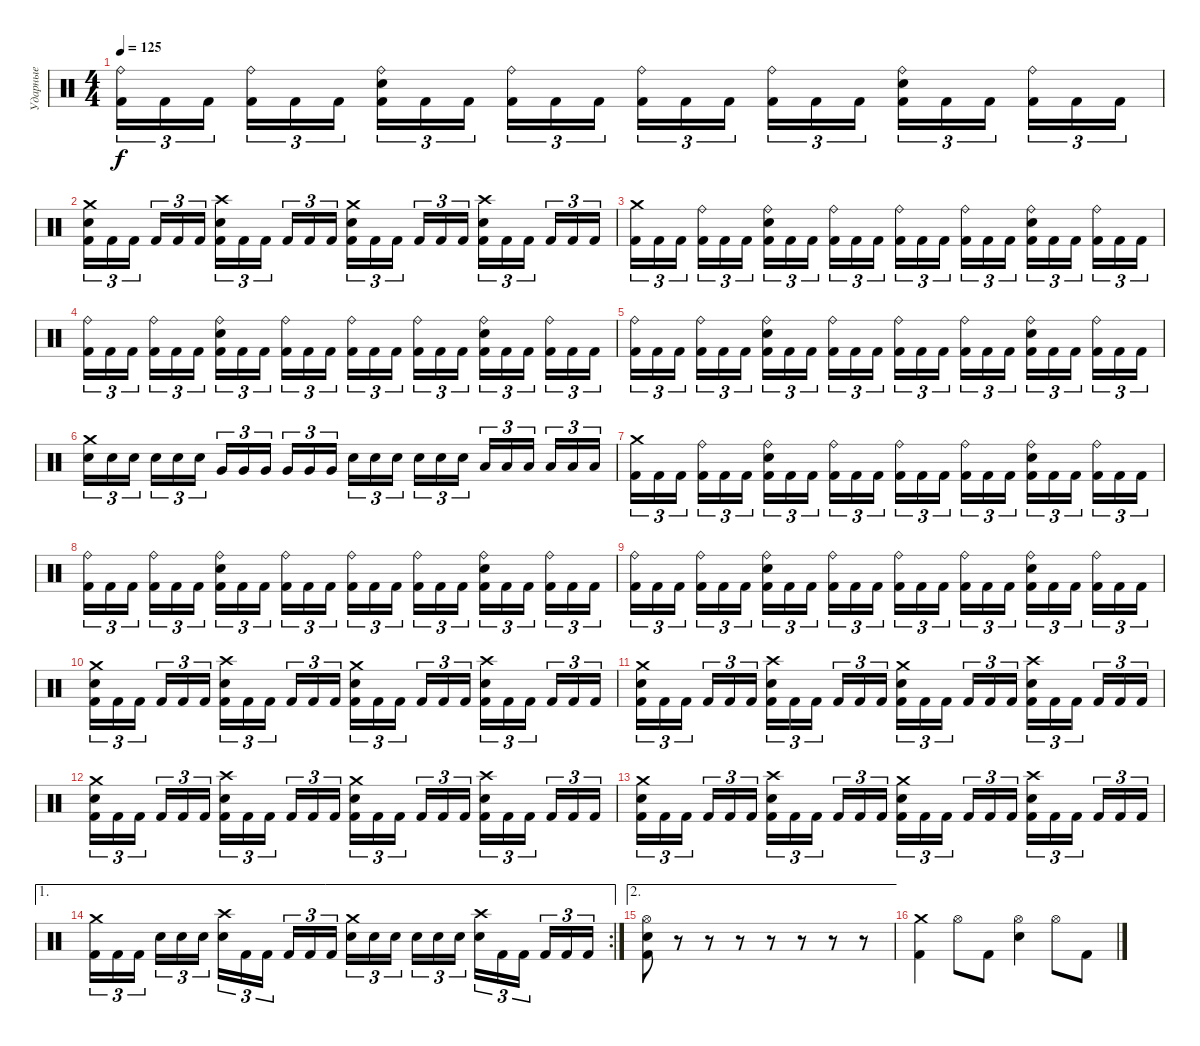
\track ("Ударные" "Ударные") {instrument percussion}
\staff {score}
\articulation defaults
\ts (4 4)
\tempo 125
\clef neutral
\ks c
("Ride (bell)" "Kick (hit) 2").16{tu (3 2) dy f} "Kick (hit) 2".16{tu (3 2)} "Kick (hit) 2".16{tu (3 2) beam splitsecondary} ("Ride (bell)" "Kick (hit) 2").16{tu (3 2)} "Kick (hit) 2".16{tu (3 2)} "Kick (hit) 2".16{tu (3 2)} ("Ride (bell)" "Electric Snare (hit)" "Kick (hit) 2").16{tu (3 2)} "Kick (hit) 2".16{tu (3 2)} "Kick (hit) 2".16{tu (3 2) beam splitsecondary} ("Ride (bell)" "Kick (hit) 2").16{tu (3 2)} "Kick (hit) 2".16{tu (3 2)} "Kick (hit) 2".16{tu (3 2)} ("Ride (bell)" "Kick (hit) 2").16{tu (3 2)} "Kick (hit) 2".16{tu (3 2)} "Kick (hit) 2".16{tu (3 2) beam splitsecondary} ("Ride (bell)" "Kick (hit) 2").16{tu (3 2)} "Kick (hit) 2".16{tu (3 2)} "Kick (hit) 2".16{tu (3 2)} ("Ride (bell)" "Electric Snare (hit)" "Kick (hit) 2").16{tu (3 2)} "Kick (hit) 2".16{tu (3 2)} "Kick (hit) 2".16{tu (3 2) beam splitsecondary} ("Ride (bell)" "Kick (hit) 2").16{tu (3 2)} "Kick (hit) 2".16{tu (3 2)} "Kick (hit) 2".16{tu (3 2)} |
("Crash medium (hit)" "Electric Snare (hit)" "Kick (hit) 2").16{tu (3 2)} "Kick (hit) 2".16{tu (3 2)} "Kick (hit) 2".16{tu (3 2) beam splitsecondary} "Kick (hit) 2".16{tu (3 2)} "Kick (hit) 2".16{tu (3 2)} "Kick (hit) 2".16{tu (3 2)} ("Crash high (hit)" "Electric Snare (hit)" "Kick (hit) 2").16{tu (3 2)} "Kick (hit) 2".16{tu (3 2)} "Kick (hit) 2".16{tu (3 2) beam splitsecondary} "Kick (hit) 2".16{tu (3 2)} "Kick (hit) 2".16{tu (3 2)} "Kick (hit) 2".16{tu (3 2)} ("Crash medium (hit)" "Electric Snare (hit)" "Kick (hit) 2").16{tu (3 2)} "Kick (hit) 2".16{tu (3 2)} "Kick (hit) 2".16{tu (3 2) beam splitsecondary} "Kick (hit) 2".16{tu (3 2)} "Kick (hit) 2".16{tu (3 2)} "Kick (hit) 2".16{tu (3 2)} ("Crash high (hit)" "Electric Snare (hit)" "Kick (hit) 2").16{tu (3 2)} "Kick (hit) 2".16{tu (3 2)} "Kick (hit) 2".16{tu (3 2) beam splitsecondary} "Kick (hit) 2".16{tu (3 2)} "Kick (hit) 2".16{tu (3 2)} "Kick (hit) 2".16{tu (3 2)} |
("Crash medium (hit)" "Kick (hit) 2").16{tu (3 2)} "Kick (hit) 2".16{tu (3 2)} "Kick (hit) 2".16{tu (3 2) beam splitsecondary} ("Ride (bell)" "Kick (hit) 2").16{tu (3 2)} "Kick (hit) 2".16{tu (3 2)} "Kick (hit) 2".16{tu (3 2)} ("Ride (bell)" "Electric Snare (hit)" "Kick (hit) 2").16{tu (3 2)} "Kick (hit) 2".16{tu (3 2)} "Kick (hit) 2".16{tu (3 2) beam splitsecondary} ("Ride (bell)" "Kick (hit) 2").16{tu (3 2)} "Kick (hit) 2".16{tu (3 2)} "Kick (hit) 2".16{tu (3 2)} ("Ride (bell)" "Kick (hit) 2").16{tu (3 2)} "Kick (hit) 2".16{tu (3 2)} "Kick (hit) 2".16{tu (3 2) beam splitsecondary} ("Ride (bell)" "Kick (hit) 2").16{tu (3 2)} "Kick (hit) 2".16{tu (3 2)} "Kick (hit) 2".16{tu (3 2)} ("Ride (bell)" "Electric Snare (hit)" "Kick (hit) 2").16{tu (3 2)} "Kick (hit) 2".16{tu (3 2)} "Kick (hit) 2".16{tu (3 2) beam splitsecondary} ("Ride (bell)" "Kick (hit) 2").16{tu (3 2)} "Kick (hit) 2".16{tu (3 2)} "Kick (hit) 2".16{tu (3 2)} |
("Ride (bell)" "Kick (hit) 2").16{tu (3 2)} "Kick (hit) 2".16{tu (3 2)} "Kick (hit) 2".16{tu (3 2) beam splitsecondary} ("Ride (bell)" "Kick (hit) 2").16{tu (3 2)} "Kick (hit) 2".16{tu (3 2)} "Kick (hit) 2".16{tu (3 2)} ("Ride (bell)" "Electric Snare (hit)" "Kick (hit) 2").16{tu (3 2)} "Kick (hit) 2".16{tu (3 2)} "Kick (hit) 2".16{tu (3 2) beam splitsecondary} ("Ride (bell)" "Kick (hit) 2").16{tu (3 2)} "Kick (hit) 2".16{tu (3 2)} "Kick (hit) 2".16{tu (3 2)} ("Ride (bell)" "Kick (hit) 2").16{tu (3 2)} "Kick (hit) 2".16{tu (3 2)} "Kick (hit) 2".16{tu (3 2) beam splitsecondary} ("Ride (bell)" "Kick (hit) 2").16{tu (3 2)} "Kick (hit) 2".16{tu (3 2)} "Kick (hit) 2".16{tu (3 2)} ("Ride (bell)" "Electric Snare (hit)" "Kick (hit) 2").16{tu (3 2)} "Kick (hit) 2".16{tu (3 2)} "Kick (hit) 2".16{tu (3 2) beam splitsecondary} ("Ride (bell)" "Kick (hit) 2").16{tu (3 2)} "Kick (hit) 2".16{tu (3 2)} "Kick (hit) 2".16{tu (3 2)} |
("Ride (bell)" "Kick (hit) 2").16{tu (3 2)} "Kick (hit) 2".16{tu (3 2)} "Kick (hit) 2".16{tu (3 2) beam splitsecondary} ("Ride (bell)" "Kick (hit) 2").16{tu (3 2)} "Kick (hit) 2".16{tu (3 2)} "Kick (hit) 2".16{tu (3 2)} ("Ride (bell)" "Electric Snare (hit)" "Kick (hit) 2").16{tu (3 2)} "Kick (hit) 2".16{tu (3 2)} "Kick (hit) 2".16{tu (3 2) beam splitsecondary} ("Ride (bell)" "Kick (hit) 2").16{tu (3 2)} "Kick (hit) 2".16{tu (3 2)} "Kick (hit) 2".16{tu (3 2)} ("Ride (bell)" "Kick (hit) 2").16{tu (3 2)} "Kick (hit) 2".16{tu (3 2)} "Kick (hit) 2".16{tu (3 2) beam splitsecondary} ("Ride (bell)" "Kick (hit) 2").16{tu (3 2)} "Kick (hit) 2".16{tu (3 2)} "Kick (hit) 2".16{tu (3 2)} ("Ride (bell)" "Electric Snare (hit)" "Kick (hit) 2").16{tu (3 2)} "Kick (hit) 2".16{tu (3 2)} "Kick (hit) 2".16{tu (3 2) beam splitsecondary} ("Ride (bell)" "Kick (hit) 2").16{tu (3 2)} "Kick (hit) 2".16{tu (3 2)} "Kick (hit) 2".16{tu (3 2)} |
("Crash medium (hit)" "Electric Snare (hit)").16{tu (3 2)} "Electric Snare (hit)".16{tu (3 2)} "Electric Snare (hit)".16{tu (3 2) beam splitsecondary} "Electric Snare (hit)".16{tu (3 2)} "Electric Snare (hit)".16{tu (3 2)} "Electric Snare (hit)".16{tu (3 2)} "Very Low Tom (hit)".16{tu (3 2)} "Very Low Tom (hit)".16{tu (3 2)} "Very Low Tom (hit)".16{tu (3 2) beam splitsecondary} "Very Low Tom (hit)".16{tu (3 2)} "Very Low Tom (hit)".16{tu (3 2)} "Very Low Tom (hit)".16{tu (3 2)} "Electric Snare (hit)".16{tu (3 2)} "Electric Snare (hit)".16{tu (3 2)} "Electric Snare (hit)".16{tu (3 2) beam splitsecondary} "Electric Snare (hit)".16{tu (3 2)} "Electric Snare (hit)".16{tu (3 2)} "Electric Snare (hit)".16{tu (3 2)} "Low Floor Tom (hit)".16{tu (3 2)} "Low Floor Tom (hit)".16{tu (3 2)} "Low Floor Tom (hit)".16{tu (3 2) beam splitsecondary} "Low Floor Tom (hit)".16{tu (3 2)} "Low Floor Tom (hit)".16{tu (3 2)} "Low Floor Tom (hit)".16{tu (3 2)} |
("Crash medium (hit)" "Kick (hit) 2").16{tu (3 2)} "Kick (hit) 2".16{tu (3 2)} "Kick (hit) 2".16{tu (3 2) beam splitsecondary} ("Ride (bell)" "Kick (hit) 2").16{tu (3 2)} "Kick (hit) 2".16{tu (3 2)} "Kick (hit) 2".16{tu (3 2)} ("Ride (bell)" "Electric Snare (hit)" "Kick (hit) 2").16{tu (3 2)} "Kick (hit) 2".16{tu (3 2)} "Kick (hit) 2".16{tu (3 2) beam splitsecondary} ("Ride (bell)" "Kick (hit) 2").16{tu (3 2)} "Kick (hit) 2".16{tu (3 2)} "Kick (hit) 2".16{tu (3 2)} ("Ride (bell)" "Kick (hit) 2").16{tu (3 2)} "Kick (hit) 2".16{tu (3 2)} "Kick (hit) 2".16{tu (3 2) beam splitsecondary} ("Ride (bell)" "Kick (hit) 2").16{tu (3 2)} "Kick (hit) 2".16{tu (3 2)} "Kick (hit) 2".16{tu (3 2)} ("Ride (bell)" "Electric Snare (hit)" "Kick (hit) 2").16{tu (3 2)} "Kick (hit) 2".16{tu (3 2)} "Kick (hit) 2".16{tu (3 2) beam splitsecondary} ("Ride (bell)" "Kick (hit) 2").16{tu (3 2)} "Kick (hit) 2".16{tu (3 2)} "Kick (hit) 2".16{tu (3 2)} |
("Ride (bell)" "Kick (hit) 2").16{tu (3 2)} "Kick (hit) 2".16{tu (3 2)} "Kick (hit) 2".16{tu (3 2) beam splitsecondary} ("Ride (bell)" "Kick (hit) 2").16{tu (3 2)} "Kick (hit) 2".16{tu (3 2)} "Kick (hit) 2".16{tu (3 2)} ("Ride (bell)" "Electric Snare (hit)" "Kick (hit) 2").16{tu (3 2)} "Kick (hit) 2".16{tu (3 2)} "Kick (hit) 2".16{tu (3 2) beam splitsecondary} ("Ride (bell)" "Kick (hit) 2").16{tu (3 2)} "Kick (hit) 2".16{tu (3 2)} "Kick (hit) 2".16{tu (3 2)} ("Ride (bell)" "Kick (hit) 2").16{tu (3 2)} "Kick (hit) 2".16{tu (3 2)} "Kick (hit) 2".16{tu (3 2) beam splitsecondary} ("Ride (bell)" "Kick (hit) 2").16{tu (3 2)} "Kick (hit) 2".16{tu (3 2)} "Kick (hit) 2".16{tu (3 2)} ("Ride (bell)" "Electric Snare (hit)" "Kick (hit) 2").16{tu (3 2)} "Kick (hit) 2".16{tu (3 2)} "Kick (hit) 2".16{tu (3 2) beam splitsecondary} ("Ride (bell)" "Kick (hit) 2").16{tu (3 2)} "Kick (hit) 2".16{tu (3 2)} "Kick (hit) 2".16{tu (3 2)} |
("Ride (bell)" "Kick (hit) 2").16{tu (3 2)} "Kick (hit) 2".16{tu (3 2)} "Kick (hit) 2".16{tu (3 2) beam splitsecondary} ("Ride (bell)" "Kick (hit) 2").16{tu (3 2)} "Kick (hit) 2".16{tu (3 2)} "Kick (hit) 2".16{tu (3 2)} ("Ride (bell)" "Electric Snare (hit)" "Kick (hit) 2").16{tu (3 2)} "Kick (hit) 2".16{tu (3 2)} "Kick (hit) 2".16{tu (3 2) beam splitsecondary} ("Ride (bell)" "Kick (hit) 2").16{tu (3 2)} "Kick (hit) 2".16{tu (3 2)} "Kick (hit) 2".16{tu (3 2)} ("Ride (bell)" "Kick (hit) 2").16{tu (3 2)} "Kick (hit) 2".16{tu (3 2)} "Kick (hit) 2".16{tu (3 2) beam splitsecondary} ("Ride (bell)" "Kick (hit) 2").16{tu (3 2)} "Kick (hit) 2".16{tu (3 2)} "Kick (hit) 2".16{tu (3 2)} ("Ride (bell)" "Electric Snare (hit)" "Kick (hit) 2").16{tu (3 2)} "Kick (hit) 2".16{tu (3 2)} "Kick (hit) 2".16{tu (3 2) beam splitsecondary} ("Ride (bell)" "Kick (hit) 2").16{tu (3 2)} "Kick (hit) 2".16{tu (3 2)} "Kick (hit) 2".16{tu (3 2)} |
("Crash medium (hit)" "Electric Snare (hit)" "Kick (hit) 2").16{tu (3 2)} "Kick (hit) 2".16{tu (3 2)} "Kick (hit) 2".16{tu (3 2) beam splitsecondary} "Kick (hit) 2".16{tu (3 2)} "Kick (hit) 2".16{tu (3 2)} "Kick (hit) 2".16{tu (3 2)} ("Crash high (hit)" "Electric Snare (hit)" "Kick (hit) 2").16{tu (3 2)} "Kick (hit) 2".16{tu (3 2)} "Kick (hit) 2".16{tu (3 2) beam splitsecondary} "Kick (hit) 2".16{tu (3 2)} "Kick (hit) 2".16{tu (3 2)} "Kick (hit) 2".16{tu (3 2)} ("Crash medium (hit)" "Electric Snare (hit)" "Kick (hit) 2").16{tu (3 2)} "Kick (hit) 2".16{tu (3 2)} "Kick (hit) 2".16{tu (3 2) beam splitsecondary} "Kick (hit) 2".16{tu (3 2)} "Kick (hit) 2".16{tu (3 2)} "Kick (hit) 2".16{tu (3 2)} ("Crash high (hit)" "Electric Snare (hit)" "Kick (hit) 2").16{tu (3 2)} "Kick (hit) 2".16{tu (3 2)} "Kick (hit) 2".16{tu (3 2) beam splitsecondary} "Kick (hit) 2".16{tu (3 2)} "Kick (hit) 2".16{tu (3 2)} "Kick (hit) 2".16{tu (3 2)} |
("Crash medium (hit)" "Electric Snare (hit)" "Kick (hit) 2").16{tu (3 2)} "Kick (hit) 2".16{tu (3 2)} "Kick (hit) 2".16{tu (3 2) beam splitsecondary} "Kick (hit) 2".16{tu (3 2)} "Kick (hit) 2".16{tu (3 2)} "Kick (hit) 2".16{tu (3 2)} ("Crash high (hit)" "Electric Snare (hit)" "Kick (hit) 2").16{tu (3 2)} "Kick (hit) 2".16{tu (3 2)} "Kick (hit) 2".16{tu (3 2) beam splitsecondary} "Kick (hit) 2".16{tu (3 2)} "Kick (hit) 2".16{tu (3 2)} "Kick (hit) 2".16{tu (3 2)} ("Crash medium (hit)" "Electric Snare (hit)" "Kick (hit) 2").16{tu (3 2)} "Kick (hit) 2".16{tu (3 2)} "Kick (hit) 2".16{tu (3 2) beam splitsecondary} "Kick (hit) 2".16{tu (3 2)} "Kick (hit) 2".16{tu (3 2)} "Kick (hit) 2".16{tu (3 2)} ("Crash high (hit)" "Electric Snare (hit)" "Kick (hit) 2").16{tu (3 2)} "Kick (hit) 2".16{tu (3 2)} "Kick (hit) 2".16{tu (3 2) beam splitsecondary} "Kick (hit) 2".16{tu (3 2)} "Kick (hit) 2".16{tu (3 2)} "Kick (hit) 2".16{tu (3 2)} |
("Crash medium (hit)" "Electric Snare (hit)" "Kick (hit) 2").16{tu (3 2)} "Kick (hit) 2".16{tu (3 2)} "Kick (hit) 2".16{tu (3 2) beam splitsecondary} "Kick (hit) 2".16{tu (3 2)} "Kick (hit) 2".16{tu (3 2)} "Kick (hit) 2".16{tu (3 2)} ("Crash high (hit)" "Electric Snare (hit)" "Kick (hit) 2").16{tu (3 2)} "Kick (hit) 2".16{tu (3 2)} "Kick (hit) 2".16{tu (3 2) beam splitsecondary} "Kick (hit) 2".16{tu (3 2)} "Kick (hit) 2".16{tu (3 2)} "Kick (hit) 2".16{tu (3 2)} ("Crash medium (hit)" "Electric Snare (hit)" "Kick (hit) 2").16{tu (3 2)} "Kick (hit) 2".16{tu (3 2)} "Kick (hit) 2".16{tu (3 2) beam splitsecondary} "Kick (hit) 2".16{tu (3 2)} "Kick (hit) 2".16{tu (3 2)} "Kick (hit) 2".16{tu (3 2)} ("Crash high (hit)" "Electric Snare (hit)" "Kick (hit) 2").16{tu (3 2)} "Kick (hit) 2".16{tu (3 2)} "Kick (hit) 2".16{tu (3 2) beam splitsecondary} "Kick (hit) 2".16{tu (3 2)} "Kick (hit) 2".16{tu (3 2)} "Kick (hit) 2".16{tu (3 2)} |
("Crash medium (hit)" "Electric Snare (hit)" "Kick (hit) 2").16{tu (3 2)} "Kick (hit) 2".16{tu (3 2)} "Kick (hit) 2".16{tu (3 2) beam splitsecondary} "Kick (hit) 2".16{tu (3 2)} "Kick (hit) 2".16{tu (3 2)} "Kick (hit) 2".16{tu (3 2)} ("Crash high (hit)" "Electric Snare (hit)" "Kick (hit) 2").16{tu (3 2)} "Kick (hit) 2".16{tu (3 2)} "Kick (hit) 2".16{tu (3 2) beam splitsecondary} "Kick (hit) 2".16{tu (3 2)} "Kick (hit) 2".16{tu (3 2)} "Kick (hit) 2".16{tu (3 2)} ("Crash medium (hit)" "Electric Snare (hit)" "Kick (hit) 2").16{tu (3 2)} "Kick (hit) 2".16{tu (3 2)} "Kick (hit) 2".16{tu (3 2) beam splitsecondary} "Kick (hit) 2".16{tu (3 2)} "Kick (hit) 2".16{tu (3 2)} "Kick (hit) 2".16{tu (3 2)} ("Crash high (hit)" "Electric Snare (hit)" "Kick (hit) 2").16{tu (3 2)} "Kick (hit) 2".16{tu (3 2)} "Kick (hit) 2".16{tu (3 2) beam splitsecondary} "Kick (hit) 2".16{tu (3 2)} "Kick (hit) 2".16{tu (3 2)} "Kick (hit) 2".16{tu (3 2)} |
\ae 1
\rc 2
("Crash medium (hit)" "Kick (hit) 2").16{tu (3 2)} "Kick (hit) 2".16{tu (3 2)} "Kick (hit) 2".16{tu (3 2) beam splitsecondary} "Electric Snare (hit)".16{tu (3 2)} "Electric Snare (hit)".16{tu (3 2)} "Electric Snare (hit)".16{tu (3 2)} ("Crash high (hit)" "Electric Snare (hit)").16{tu (3 2)} "Kick (hit) 2".16{tu (3 2)} "Kick (hit) 2".16{tu (3 2) beam splitsecondary} "Kick (hit) 2".16{tu (3 2)} "Kick (hit) 2".16{tu (3 2)} "Kick (hit) 2".16{tu (3 2)} ("Crash medium (hit)" "Electric Snare (hit)").16{tu (3 2)} "Electric Snare (hit)".16{tu (3 2)} "Electric Snare (hit)".16{tu (3 2) beam splitsecondary} "Electric Snare (hit)".16{tu (3 2)} "Electric Snare (hit)".16{tu (3 2)} "Electric Snare (hit)".16{tu (3 2)} ("Crash high (hit)" "Electric Snare (hit)").16{tu (3 2)} "Kick (hit) 2".16{tu (3 2)} "Kick (hit) 2".16{tu (3 2) beam splitsecondary} "Kick (hit) 2".16{tu (3 2)} "Kick (hit) 2".16{tu (3 2)} "Kick (hit) 2".16{tu (3 2)} |
\ae 2
("Hi-Hat (open)" "Electric Snare (hit)" "Kick (hit) 2").8 r.8 r.8 r.8 r.8 r.8 r.8 r.8 |
("Crash medium (hit)" "Kick (hit) 2").4 "Hi-Hat (open)".8 "Kick (hit) 2".8 ("Hi-Hat (open)" "Electric Snare (hit)").4 "Hi-Hat (open)".8 "Kick (hit) 2".8
